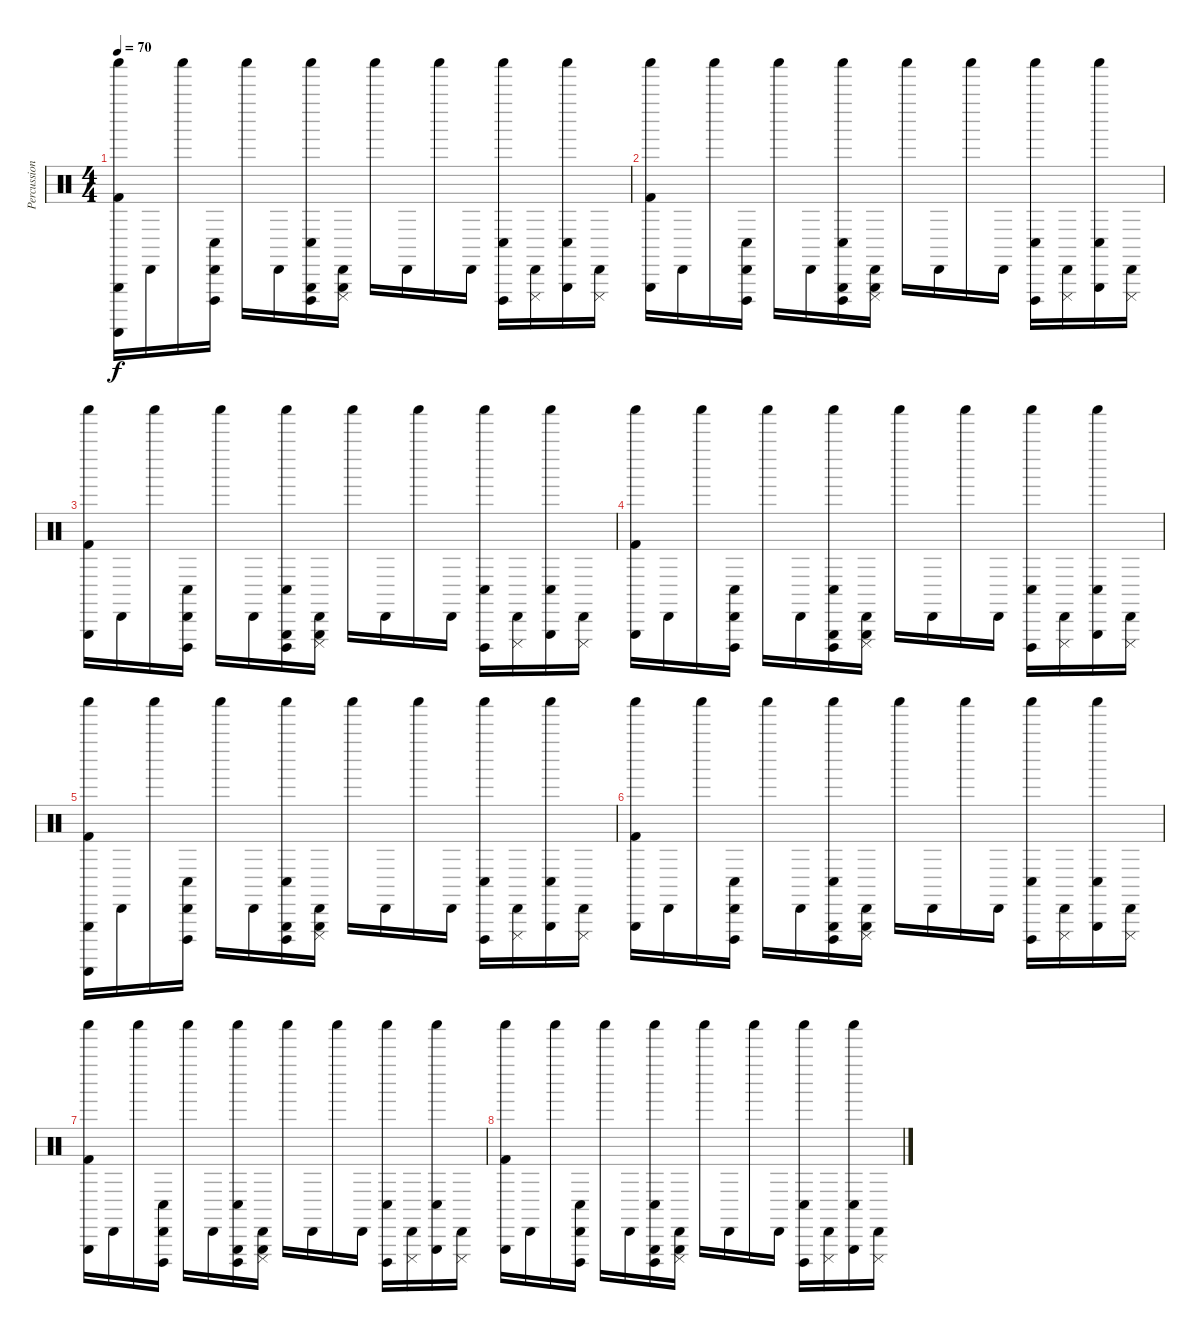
\track ("Percussion" "Percussion") {instrument percussion}
\staff {score}
\articulation defaults
\ts (4 4)
\tempo 70
\clef neutral
\ks c
("Triangle (hit)" "Guiro (scrap-return)" "Shaker (hit)" "Kick (hit) 2").16{dy f} "Cabasa (hit)".16 "Shaker (hit)".16 ("Cabasa (hit)" "Cuica (open)" "Conga low (hit)").16 "Shaker (hit)".16 "Cabasa (hit)".16 ("Triangle (hit)" "Shaker (hit)" "Cuica (open)" "Conga low (hit)").16 ("Triangle (hit)" "Cabasa (hit)" "Cuica (mute)").16 "Shaker (hit)".16 "Cabasa (hit)".16 "Shaker (hit)".16 "Cabasa (hit)".16 ("Shaker (hit)" "Cuica (open)" "Conga low (hit)").16 ("Cabasa (hit)" "Cuica (mute)").16 ("Triangle (hit)" "Shaker (hit)" "Conga low (hit)").16 ("Cabasa (hit)" "Cuica (mute)").16 |
("Triangle (hit)" "Shaker (hit)" "Kick (hit) 2").16 "Cabasa (hit)".16 "Shaker (hit)".16 ("Cabasa (hit)" "Cuica (open)" "Conga low (hit)").16 "Shaker (hit)".16 "Cabasa (hit)".16 ("Triangle (hit)" "Shaker (hit)" "Cuica (open)" "Conga low (hit)").16 ("Triangle (hit)" "Cabasa (hit)" "Cuica (mute)").16 "Shaker (hit)".16 "Cabasa (hit)".16 "Shaker (hit)".16 "Cabasa (hit)".16 ("Shaker (hit)" "Cuica (open)" "Conga low (hit)").16 ("Cabasa (hit)" "Cuica (mute)").16 ("Triangle (hit)" "Shaker (hit)" "Conga low (hit)").16 ("Cabasa (hit)" "Cuica (mute)").16 |
("Triangle (hit)" "Shaker (hit)" "Kick (hit) 2").16 "Cabasa (hit)".16 "Shaker (hit)".16 ("Cabasa (hit)" "Cuica (open)" "Conga low (hit)").16 "Shaker (hit)".16 "Cabasa (hit)".16 ("Triangle (hit)" "Shaker (hit)" "Cuica (open)" "Conga low (hit)").16 ("Triangle (hit)" "Cabasa (hit)" "Cuica (mute)").16 "Shaker (hit)".16 "Cabasa (hit)".16 "Shaker (hit)".16 "Cabasa (hit)".16 ("Shaker (hit)" "Cuica (open)" "Conga low (hit)").16 ("Cabasa (hit)" "Cuica (mute)").16 ("Triangle (hit)" "Shaker (hit)" "Conga low (hit)").16 ("Cabasa (hit)" "Cuica (mute)").16 |
("Triangle (hit)" "Shaker (hit)" "Kick (hit) 2").16 "Cabasa (hit)".16 "Shaker (hit)".16 ("Cabasa (hit)" "Cuica (open)" "Conga low (hit)").16 "Shaker (hit)".16 "Cabasa (hit)".16 ("Triangle (hit)" "Shaker (hit)" "Cuica (open)" "Conga low (hit)").16 ("Triangle (hit)" "Cabasa (hit)" "Cuica (mute)").16 "Shaker (hit)".16 "Cabasa (hit)".16 "Shaker (hit)".16 "Cabasa (hit)".16 ("Shaker (hit)" "Cuica (open)" "Conga low (hit)").16 ("Cabasa (hit)" "Cuica (mute)").16 ("Triangle (hit)" "Shaker (hit)" "Conga low (hit)").16 ("Cabasa (hit)" "Cuica (mute)").16 |
("Triangle (hit)" "Guiro (scrap-return)" "Shaker (hit)" "Kick (hit) 2").16 "Cabasa (hit)".16 "Shaker (hit)".16 ("Cabasa (hit)" "Cuica (open)" "Conga low (hit)").16 "Shaker (hit)".16 "Cabasa (hit)".16 ("Triangle (hit)" "Shaker (hit)" "Cuica (open)" "Conga low (hit)").16 ("Triangle (hit)" "Cabasa (hit)" "Cuica (mute)").16 "Shaker (hit)".16 "Cabasa (hit)".16 "Shaker (hit)".16 "Cabasa (hit)".16 ("Shaker (hit)" "Cuica (open)" "Conga low (hit)").16 ("Cabasa (hit)" "Cuica (mute)").16 ("Triangle (hit)" "Shaker (hit)" "Conga low (hit)").16 ("Cabasa (hit)" "Cuica (mute)").16 |
("Triangle (hit)" "Shaker (hit)" "Kick (hit) 2").16 "Cabasa (hit)".16 "Shaker (hit)".16 ("Cabasa (hit)" "Cuica (open)" "Conga low (hit)").16 "Shaker (hit)".16 "Cabasa (hit)".16 ("Triangle (hit)" "Shaker (hit)" "Cuica (open)" "Conga low (hit)").16 ("Triangle (hit)" "Cabasa (hit)" "Cuica (mute)").16 "Shaker (hit)".16 "Cabasa (hit)".16 "Shaker (hit)".16 "Cabasa (hit)".16 ("Shaker (hit)" "Cuica (open)" "Conga low (hit)").16 ("Cabasa (hit)" "Cuica (mute)").16 ("Triangle (hit)" "Shaker (hit)" "Conga low (hit)").16 ("Cabasa (hit)" "Cuica (mute)").16 |
("Triangle (hit)" "Shaker (hit)" "Kick (hit) 2").16 "Cabasa (hit)".16 "Shaker (hit)".16 ("Cabasa (hit)" "Cuica (open)" "Conga low (hit)").16 "Shaker (hit)".16 "Cabasa (hit)".16 ("Triangle (hit)" "Shaker (hit)" "Cuica (open)" "Conga low (hit)").16 ("Triangle (hit)" "Cabasa (hit)" "Cuica (mute)").16 "Shaker (hit)".16 "Cabasa (hit)".16 "Shaker (hit)".16 "Cabasa (hit)".16 ("Shaker (hit)" "Cuica (open)" "Conga low (hit)").16 ("Cabasa (hit)" "Cuica (mute)").16 ("Triangle (hit)" "Shaker (hit)" "Conga low (hit)").16 ("Cabasa (hit)" "Cuica (mute)").16 |
("Triangle (hit)" "Shaker (hit)" "Kick (hit) 2").16 "Cabasa (hit)".16 "Shaker (hit)".16 ("Cabasa (hit)" "Cuica (open)" "Conga low (hit)").16 "Shaker (hit)".16 "Cabasa (hit)".16 ("Triangle (hit)" "Shaker (hit)" "Cuica (open)" "Conga low (hit)").16 ("Triangle (hit)" "Cabasa (hit)" "Cuica (mute)").16 "Shaker (hit)".16 "Cabasa (hit)".16 "Shaker (hit)".16 "Cabasa (hit)".16 ("Shaker (hit)" "Cuica (open)" "Conga low (hit)").16 ("Cabasa (hit)" "Cuica (mute)").16 ("Triangle (hit)" "Shaker (hit)" "Conga low (hit)").16 ("Cabasa (hit)" "Cuica (mute)").16
